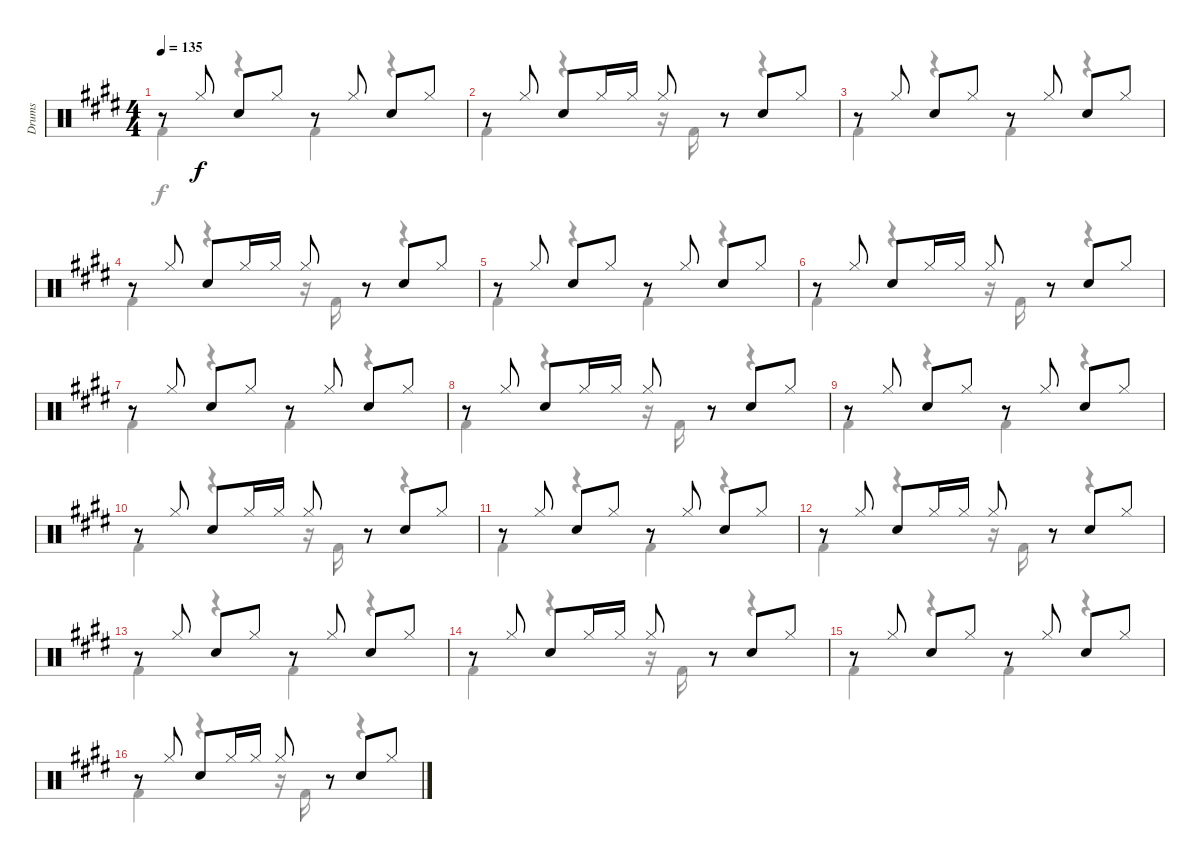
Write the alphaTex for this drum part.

\track ("Drums" "Drums") {instrument percussion}
\staff {score}
\articulation defaults
\voice
\ts (4 4)
\tempo 135
\clef neutral
\ks c#minor
r.8{dy f} "Hi-Hat (closed)".8 "Snare (hit) 2".8 "Hi-Hat (closed)".8 r.8 "Hi-Hat (closed)".8 "Snare (hit) 2".8 "Hi-Hat (closed)".8 |
r.8 "Hi-Hat (closed)".8 "Snare (hit) 2".8 "Hi-Hat (closed)".16 "Hi-Hat (closed)".16 "Hi-Hat (closed)".8 r.8 "Snare (hit) 2".8 "Hi-Hat (closed)".8 |
r.8 "Hi-Hat (closed)".8 "Snare (hit) 2".8 "Hi-Hat (closed)".8 r.8 "Hi-Hat (closed)".8 "Snare (hit) 2".8 "Hi-Hat (closed)".8 |
r.8 "Hi-Hat (closed)".8 "Snare (hit) 2".8 "Hi-Hat (closed)".16 "Hi-Hat (closed)".16 "Hi-Hat (closed)".8 r.8 "Snare (hit) 2".8 "Hi-Hat (closed)".8 |
r.8 "Hi-Hat (closed)".8 "Snare (hit) 2".8 "Hi-Hat (closed)".8 r.8 "Hi-Hat (closed)".8 "Snare (hit) 2".8 "Hi-Hat (closed)".8 |
r.8 "Hi-Hat (closed)".8 "Snare (hit) 2".8 "Hi-Hat (closed)".16 "Hi-Hat (closed)".16 "Hi-Hat (closed)".8 r.8 "Snare (hit) 2".8 "Hi-Hat (closed)".8 |
r.8 "Hi-Hat (closed)".8 "Snare (hit) 2".8 "Hi-Hat (closed)".8 r.8 "Hi-Hat (closed)".8 "Snare (hit) 2".8 "Hi-Hat (closed)".8 |
r.8 "Hi-Hat (closed)".8 "Snare (hit) 2".8 "Hi-Hat (closed)".16 "Hi-Hat (closed)".16 "Hi-Hat (closed)".8 r.8 "Snare (hit) 2".8 "Hi-Hat (closed)".8 |
r.8 "Hi-Hat (closed)".8 "Snare (hit) 2".8 "Hi-Hat (closed)".8 r.8 "Hi-Hat (closed)".8 "Snare (hit) 2".8 "Hi-Hat (closed)".8 |
r.8 "Hi-Hat (closed)".8 "Snare (hit) 2".8 "Hi-Hat (closed)".16 "Hi-Hat (closed)".16 "Hi-Hat (closed)".8 r.8 "Snare (hit) 2".8 "Hi-Hat (closed)".8 |
r.8 "Hi-Hat (closed)".8 "Snare (hit) 2".8 "Hi-Hat (closed)".8 r.8 "Hi-Hat (closed)".8 "Snare (hit) 2".8 "Hi-Hat (closed)".8 |
r.8 "Hi-Hat (closed)".8 "Snare (hit) 2".8 "Hi-Hat (closed)".16 "Hi-Hat (closed)".16 "Hi-Hat (closed)".8 r.8 "Snare (hit) 2".8 "Hi-Hat (closed)".8 |
r.8 "Hi-Hat (closed)".8 "Snare (hit) 2".8 "Hi-Hat (closed)".8 r.8 "Hi-Hat (closed)".8 "Snare (hit) 2".8 "Hi-Hat (closed)".8 |
r.8 "Hi-Hat (closed)".8 "Snare (hit) 2".8 "Hi-Hat (closed)".16 "Hi-Hat (closed)".16 "Hi-Hat (closed)".8 r.8 "Snare (hit) 2".8 "Hi-Hat (closed)".8 |
r.8 "Hi-Hat (closed)".8 "Snare (hit) 2".8 "Hi-Hat (closed)".8 r.8 "Hi-Hat (closed)".8 "Snare (hit) 2".8 "Hi-Hat (closed)".8 |
r.8 "Hi-Hat (closed)".8 "Snare (hit) 2".8 "Hi-Hat (closed)".16 "Hi-Hat (closed)".16 "Hi-Hat (closed)".8 r.8 "Snare (hit) 2".8 "Hi-Hat (closed)".8
\voice
\clef neutral
\ottava regular
\simile none
\ks c#minor "Kick (hit) 2".4{dy f}
r.4 "Kick (hit) 2".4 r.4 |
"Kick (hit) 2".4 r.4 r.16 "Kick (hit) 2".16 r.8 r.4 |
"Kick (hit) 2".4 r.4 "Kick (hit) 2".4 r.4 |
"Kick (hit) 2".4 r.4 r.16 "Kick (hit) 2".16 r.8 r.4 |
"Kick (hit) 2".4 r.4 "Kick (hit) 2".4 r.4 |
"Kick (hit) 2".4 r.4 r.16 "Kick (hit) 2".16 r.8 r.4 |
"Kick (hit) 2".4 r.4 "Kick (hit) 2".4 r.4 |
"Kick (hit) 2".4 r.4 r.16 "Kick (hit) 2".16 r.8 r.4 |
"Kick (hit) 2".4 r.4 "Kick (hit) 2".4 r.4 |
"Kick (hit) 2".4 r.4 r.16 "Kick (hit) 2".16 r.8 r.4 |
"Kick (hit) 2".4 r.4 "Kick (hit) 2".4 r.4 |
"Kick (hit) 2".4 r.4 r.16 "Kick (hit) 2".16 r.8 r.4 |
"Kick (hit) 2".4 r.4 "Kick (hit) 2".4 r.4 |
"Kick (hit) 2".4 r.4 r.16 "Kick (hit) 2".16 r.8 r.4 |
"Kick (hit) 2".4 r.4 "Kick (hit) 2".4 r.4 |
"Kick (hit) 2".4 r.4 r.16 "Kick (hit) 2".16 r.8 r.4
